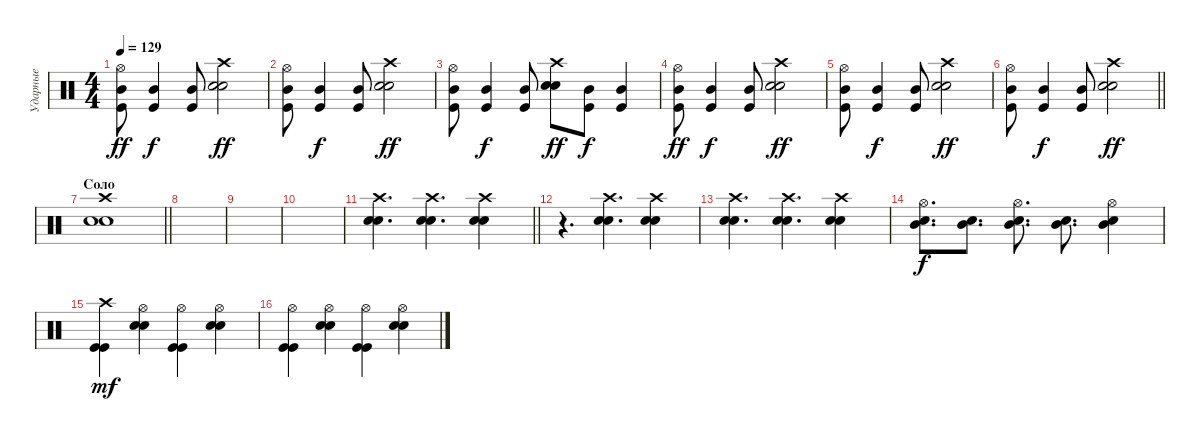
\track ("Ударные" "Ударные") {instrument percussion}
\staff {score}
\articulation defaults
\ts (4 4)
\tempo 129
\clef neutral
\ks c
("Kick (hit)" "Mid Tom (hit)" "Hi-Hat (open)").8{dy ff} ("Kick (hit)" "Mid Tom (hit)").4{dy f} ("Kick (hit)" "Mid Tom (hit)").8 ("Snare (hit) 2" "Snare (hit) 2" "Crash high (hit)").2{dy ff} |
("Kick (hit)" "Mid Tom (hit)" "Hi-Hat (open)").8 ("Kick (hit)" "Mid Tom (hit)").4{dy f} ("Kick (hit)" "Mid Tom (hit)").8 ("Snare (hit) 2" "Snare (hit) 2" "Crash high (hit)").2{dy ff} |
("Kick (hit)" "Mid Tom (hit)" "Hi-Hat (open)").8 ("Kick (hit)" "Mid Tom (hit)").4{dy f} ("Kick (hit)" "Mid Tom (hit)").8 ("Snare (hit) 2" "Snare (hit) 2" "Crash high (hit)").8{dy ff} ("Kick (hit)" "Mid Tom (hit)").8{dy f} ("Kick (hit)" "Mid Tom (hit)").4 |
("Kick (hit)" "Mid Tom (hit)" "Hi-Hat (open)").8{dy ff} ("Kick (hit)" "Mid Tom (hit)").4{dy f} ("Kick (hit)" "Mid Tom (hit)").8 ("Snare (hit) 2" "Snare (hit) 2" "Crash high (hit)").2{dy ff} |
("Kick (hit)" "Mid Tom (hit)" "Hi-Hat (open)").8 ("Kick (hit)" "Mid Tom (hit)").4{dy f} ("Kick (hit)" "Mid Tom (hit)").8 ("Snare (hit) 2" "Snare (hit) 2" "Crash high (hit)").2{dy ff} |
\barLineRight lightlight
("Kick (hit)" "Mid Tom (hit)" "Hi-Hat (open)").8 ("Kick (hit)" "Mid Tom (hit)").4{dy f} ("Kick (hit)" "Mid Tom (hit)").8 ("Snare (hit) 2" "Snare (hit) 2" "Crash high (hit)").2{dy ff} |
\section ("" "Соло")
\barLineRight lightlight
("Snare (hit) 2" "Snare (hit) 2" "Crash high (hit)").1 |
\section ("" "")
|
|
|
\barLineRight lightlight
("Snare (hit) 2" "Snare (hit) 2" "Crash high (hit)").4{d} ("Snare (hit) 2" "Snare (hit) 2" "Crash high (hit)").4{d} ("Snare (hit) 2" "Snare (hit) 2" "Crash high (hit)").4 |
r.4{d} ("Snare (hit) 2" "Snare (hit) 2" "Crash high (hit)").4{d} ("Snare (hit) 2" "Snare (hit) 2" "Crash high (hit)").4 |
("Snare (hit) 2" "Snare (hit) 2" "Crash high (hit)").4{d} ("Snare (hit) 2" "Snare (hit) 2" "Crash high (hit)").4{d} ("Snare (hit) 2" "Snare (hit) 2" "Crash high (hit)").4 |
("Hi-Hat (open)" "Snare (hit) 2" "Mid Tom (hit)").8{d dy f} ("Snare (hit) 2" "Mid Tom (hit)").8{d} ("Hi-Hat (open)" "Snare (hit) 2" "Mid Tom (hit)").8{d} ("Snare (hit) 2" "Mid Tom (hit)").8{d} ("Hi-Hat (open)" "Snare (hit) 2" "Mid Tom (hit)").4 |
("Crash high (hit)" "Kick (hit)" "Kick (hit)").4{dy mf} ("Hi-Hat (open)" "Snare (hit) 2" "Snare (hit) 2").4 ("Hi-Hat (open)" "Kick (hit)" "Kick (hit)").4 ("Hi-Hat (open)" "Snare (hit) 2" "Snare (hit) 2").4 |
("Hi-Hat (open)" "Kick (hit)" "Kick (hit)").4 ("Hi-Hat (open)" "Snare (hit) 2" "Snare (hit) 2").4 ("Hi-Hat (open)" "Kick (hit)" "Kick (hit)").4 ("Hi-Hat (open)" "Snare (hit) 2" "Snare (hit) 2").4
